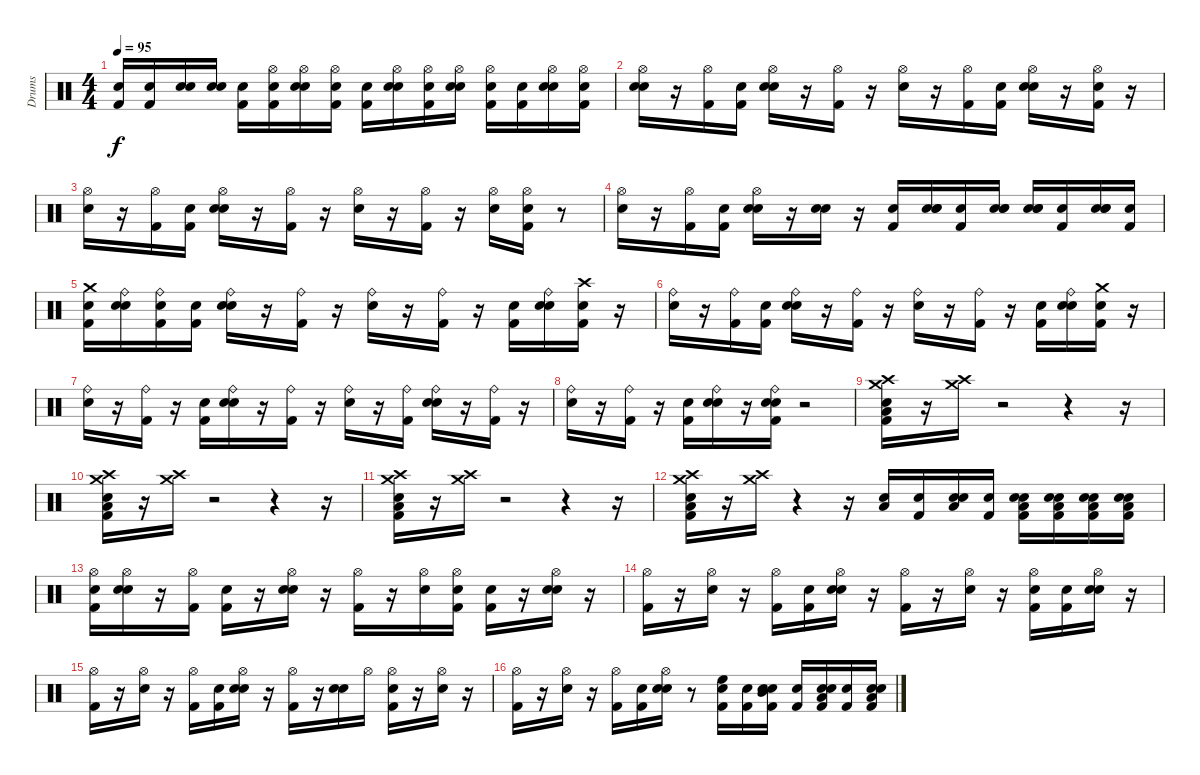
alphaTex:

\track ("Drums" "Drums") {instrument percussion}
\staff {score}
\articulation defaults
\ts (4 4)
\tempo 95
\clef neutral
\ks c
("Snare (hit)" "Kick (hit) 2").16{dy f} ("Snare (hit)" "Kick (hit) 2").16 ("Snare (hit)" "Electric Snare (hit)").16 ("Snare (hit)" "Electric Snare (hit)").16 ("Snare (hit)" "Kick (hit) 2").16 ("Snare (hit)" "Kick (hit) 2" "Hi-Hat (open)").16 ("Snare (hit)" "Electric Snare (hit)" "Hi-Hat (open)").16 ("Snare (hit)" "Kick (hit) 2" "Hi-Hat (open)").16 ("Snare (hit)" "Kick (hit) 2").16 ("Snare (hit)" "Electric Snare (hit)" "Hi-Hat (open)").16 ("Snare (hit)" "Kick (hit) 2" "Hi-Hat (open)").16 ("Snare (hit)" "Electric Snare (hit)" "Hi-Hat (open)").16 ("Snare (hit)" "Kick (hit) 2" "Hi-Hat (open)").16 ("Snare (hit)" "Kick (hit) 2").16 ("Snare (hit)" "Electric Snare (hit)" "Hi-Hat (open)").16 ("Snare (hit)" "Kick (hit) 2" "Hi-Hat (open)").16 |
("Snare (hit)" "Electric Snare (hit)" "Hi-Hat (open)").16 r.16 ("Kick (hit) 2" "Hi-Hat (open)").16 ("Snare (hit)" "Kick (hit) 2").16 ("Snare (hit)" "Electric Snare (hit)" "Hi-Hat (open)").16 r.16 ("Kick (hit) 2" "Hi-Hat (open)").16 r.16 ("Electric Snare (hit)" "Hi-Hat (open)").16 r.16 ("Hi-Hat (open)" "Kick (hit) 2").16 ("Snare (hit)" "Kick (hit) 2").16 ("Snare (hit)" "Electric Snare (hit)" "Hi-Hat (open)").16 r.16 ("Snare (hit)" "Hi-Hat (open)" "Kick (hit) 2").16 r.16 |
("Hi-Hat (open)" "Electric Snare (hit)").16 r.16 ("Hi-Hat (open)" "Kick (hit) 2").16 ("Snare (hit)" "Kick (hit) 2").16 ("Snare (hit)" "Hi-Hat (open)" "Electric Snare (hit)").16 r.16 ("Kick (hit) 2" "Hi-Hat (open)").16 r.16 ("Electric Snare (hit)" "Hi-Hat (open)").16 r.16 ("Kick (hit) 2" "Hi-Hat (open)").16 r.16 ("Electric Snare (hit)" "Hi-Hat (open)").16 ("Snare (hit)" "Kick (hit) 2" "Hi-Hat (open)").16 r.8 |
("Hi-Hat (open)" "Electric Snare (hit)").16 r.16 ("Hi-Hat (open)" "Kick (hit) 2").16 ("Snare (hit)" "Kick (hit) 2").16 ("Snare (hit)" "Electric Snare (hit)" "Hi-Hat (open)").16 r.16 ("Snare (hit) 2" "Electric Snare (hit)").16 r.16 ("Snare (hit)" "Kick (hit) 2").16 ("Snare (hit)" "Snare (hit) 2" "Electric Snare (hit)").16 ("Snare (hit)" "Kick (hit) 2").16 ("Snare (hit)" "Snare (hit) 2" "Electric Snare (hit)").16 ("Snare (hit)" "Snare (hit) 2" "Electric Snare (hit)").16 ("Snare (hit)" "Kick (hit) 2").16 ("Snare (hit)" "Snare (hit) 2" "Electric Snare (hit)").16 ("Snare (hit)" "Kick (hit) 2").16 |
("Snare (hit)" "Kick (hit) 2" "Crash medium (hit)").16 ("Snare (hit)" "Ride (bell)" "Electric Snare (hit)").16 ("Snare (hit)" "Ride (bell)" "Kick (hit) 2").16 ("Snare (hit)" "Kick (hit) 2").16 ("Snare (hit)" "Ride (bell)" "Electric Snare (hit)").16 r.16 ("Ride (bell)" "Kick (hit) 2").16 r.16 ("Electric Snare (hit)" "Ride (bell)").16 r.16 ("Kick (hit) 2" "Ride (bell)").16 r.16 ("Snare (hit)" "Kick (hit) 2").16 ("Snare (hit)" "Ride (bell)" "Electric Snare (hit)").16 ("Snare (hit)" "Kick (hit) 2" "Crash high (hit)").16 r.16 |
("Ride (bell)" "Electric Snare (hit)").16 r.16 ("Ride (bell)" "Kick (hit) 2").16 ("Snare (hit)" "Kick (hit) 2").16 ("Snare (hit)" "Ride (bell)" "Electric Snare (hit)").16 r.16 ("Ride (bell)" "Kick (hit) 2").16 r.16 ("Ride (bell)" "Electric Snare (hit)").16 r.16 ("Ride (bell)" "Kick (hit) 2").16 r.16 ("Snare (hit)" "Kick (hit) 2").16 ("Snare (hit)" "Electric Snare (hit)" "Ride (bell)").16 ("Snare (hit)" "Kick (hit) 2" "Crash medium (hit)").16 r.16 |
("Ride (bell)" "Electric Snare (hit)").16 r.16 ("Kick (hit) 2" "Ride (bell)").16 r.16 ("Snare (hit)" "Kick (hit) 2").16 ("Snare (hit)" "Ride (bell)" "Electric Snare (hit)").16 r.16 ("Ride (bell)" "Kick (hit) 2").16 r.16 ("Ride (bell)" "Electric Snare (hit)").16 r.16 ("Ride (bell)" "Kick (hit) 2").16 ("Snare (hit)" "Ride (bell)" "Electric Snare (hit)").16 r.16 ("Kick (hit) 2" "Ride (bell)").16 r.16 |
("Electric Snare (hit)" "Ride (bell)").16 r.16 ("Kick (hit) 2" "Ride (bell)").16 r.16 ("Snare (hit)" "Kick (hit) 2").16 ("Snare (hit)" "Ride (bell)" "Electric Snare (hit)").16 r.16 ("Snare (hit) 2" "Kick (hit) 2" "Ride (bell)" "Electric Snare (hit)").16 r.2 |
("Kick (hit) 2" "Electric Snare (hit)" "Low Floor Tom (hit)" "Crash medium (hit)" "Crash high (hit)").16 r.16 ("Crash medium (hit)" "Crash high (hit)").16 r.2 r.4 r.16 |
("Kick (hit) 2" "Low Floor Tom (hit)" "Electric Snare (hit)" "Crash medium (hit)" "Crash high (hit)").16 r.16 ("Crash medium (hit)" "Crash high (hit)").16 r.2 r.4 r.16 |
("Kick (hit) 2" "Electric Snare (hit)" "Low Floor Tom (hit)" "Crash high (hit)" "Crash medium (hit)").16 r.16 ("Crash high (hit)" "Crash medium (hit)").16 r.2 r.4 r.16 |
("Kick (hit) 2" "Low Floor Tom (hit)" "Electric Snare (hit)" "Crash high (hit)" "Crash medium (hit)").16 r.16 ("Crash high (hit)" "Crash medium (hit)").16 r.4 r.16 ("Low Floor Tom (hit)" "Electric Snare (hit)").16 ("Snare (hit)" "Kick (hit) 2").16 ("Snare (hit)" "Electric Snare (hit)" "Low Floor Tom (hit)").16 ("Snare (hit)" "Kick (hit) 2").16 ("Snare (hit)" "Kick (hit) 2" "Low Floor Tom (hit)" "Electric Snare (hit)").16 ("Snare (hit)" "Kick (hit) 2" "Electric Snare (hit)" "Low Floor Tom (hit)").16 ("Snare (hit)" "Kick (hit) 2" "Electric Snare (hit)" "Low Floor Tom (hit)").16 ("Snare (hit)" "Kick (hit) 2" "Low Floor Tom (hit)" "Electric Snare (hit)").16 |
("Snare (hit)" "Kick (hit) 2" "Hi-Hat (open)").16 ("Snare (hit)" "Electric Snare (hit)" "Hi-Hat (open)").16 r.16 ("Kick (hit) 2" "Hi-Hat (open)").16 ("Snare (hit)" "Kick (hit) 2").16 r.16 ("Snare (hit)" "Electric Snare (hit)" "Hi-Hat (open)").16 r.16 ("Kick (hit) 2" "Hi-Hat (open)").16 r.16 ("Electric Snare (hit)" "Hi-Hat (open)").16 ("Snare (hit)" "Kick (hit) 2" "Hi-Hat (open)").16 ("Snare (hit)" "Kick (hit) 2").16 r.16 ("Snare (hit)" "Electric Snare (hit)" "Hi-Hat (open)").16 r.16 |
("Kick (hit) 2" "Hi-Hat (open)").16 r.16 ("Electric Snare (hit)" "Hi-Hat (open)").16 r.16 ("Kick (hit) 2" "Hi-Hat (open)").16 ("Snare (hit)" "Kick (hit) 2").16 ("Snare (hit)" "Electric Snare (hit)" "Hi-Hat (open)").16 r.16 ("Kick (hit) 2" "Hi-Hat (open)").16 r.16 ("Electric Snare (hit)" "Hi-Hat (open)").16 r.16 ("Snare (hit)" "Hi-Hat (open)" "Kick (hit) 2").16 ("Snare (hit)" "Kick (hit) 2").16 ("Snare (hit)" "Electric Snare (hit)" "Hi-Hat (open)").16 r.16 |
("Hi-Hat (open)" "Kick (hit) 2").16 r.16 ("Hi-Hat (open)" "Electric Snare (hit)").16 r.16 ("Hi-Hat (open)" "Kick (hit) 2").16 ("Snare (hit)" "Kick (hit) 2").16 ("Snare (hit)" "Hi-Hat (open)" "Electric Snare (hit)").16 r.16 ("Kick (hit) 2" "Hi-Hat (open)").16 r.16 ("Snare (hit)" "Electric Snare (hit)").16 "Hi-Hat (open)".16 ("Snare (hit)" "Kick (hit) 2" "Hi-Hat (open)").16 r.16 ("Electric Snare (hit)" "Hi-Hat (open)").16 r.16 |
("Kick (hit) 2" "Hi-Hat (open)").16 r.16 ("Hi-Hat (open)" "Electric Snare (hit)").16 r.16 ("Hi-Hat (open)" "Kick (hit) 2").16 ("Snare (hit)" "Kick (hit) 2").16 ("Snare (hit)" "Electric Snare (hit)" "Hi-Hat (open)").16 r.8 ("Kick (hit) 2" "High Floor Tom (hit)" "Electric Snare (hit)").16 ("Snare (hit)" "Kick (hit) 2").16 ("Snare (hit)" "Kick (hit) 2" "Electric Snare (hit)" "Mid Tom (hit)").16 ("Snare (hit)" "Kick (hit) 2").16 ("Snare (hit)" "Kick (hit) 2" "Low Tom (hit)" "Electric Snare (hit)").16 ("Snare (hit)" "Kick (hit) 2").16 ("Snare (hit)" "Kick (hit) 2" "Electric Snare (hit)" "Low Floor Tom (hit)").16
